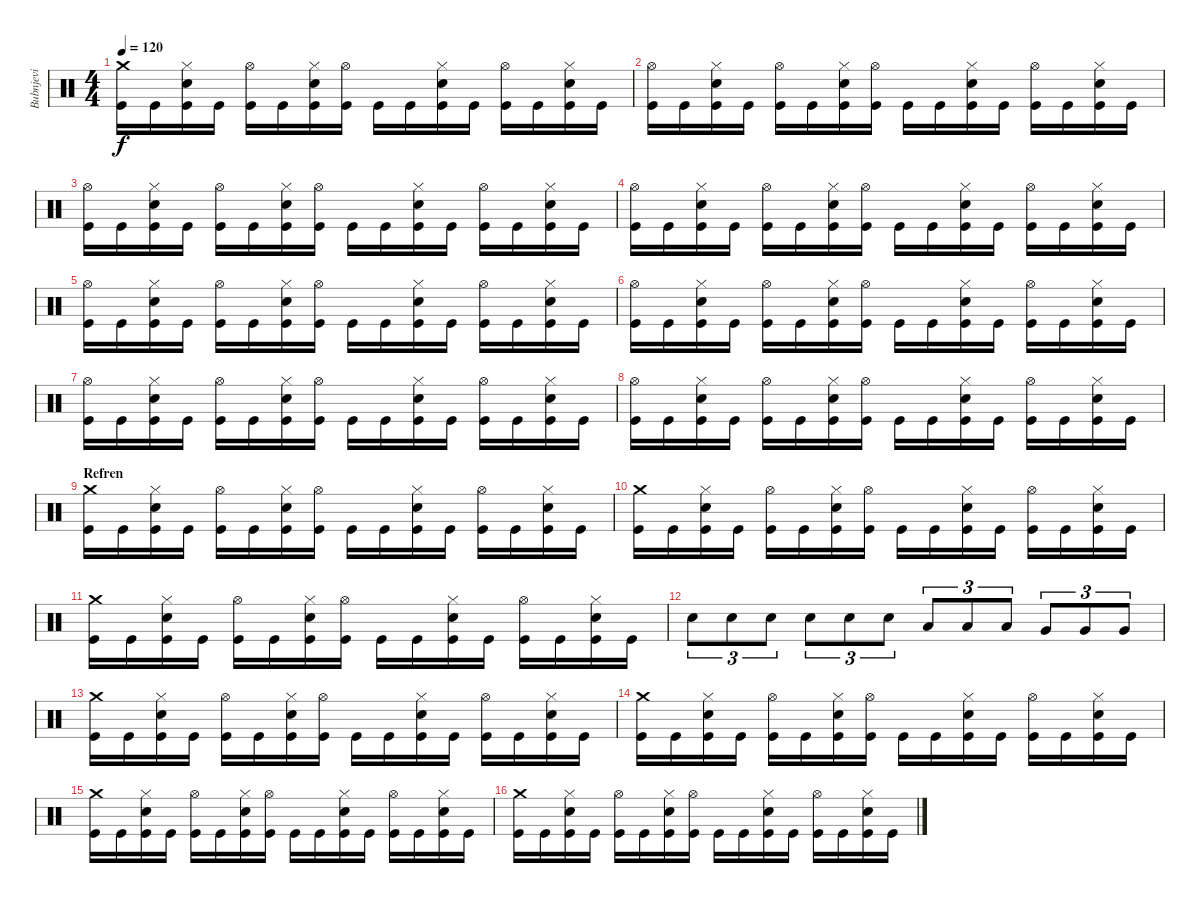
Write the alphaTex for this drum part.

\track ("Bubnjevi" "Bubnjevi") {instrument percussion}
\staff {score}
\articulation defaults
\ts (4 4)
\tempo 120
\clef neutral
\ks c
("Crash medium (hit)" "Kick (hit)").16{dy f} "Kick (hit)".16 ("Electric Snare (hit)" "Hi-Hat (closed)" "Kick (hit)").16 "Kick (hit)".16 ("Hi-Hat (open)" "Kick (hit)").16 "Kick (hit)".16 ("Electric Snare (hit)" "Hi-Hat (closed)" "Kick (hit)").16 ("Hi-Hat (open)" "Kick (hit)").16 "Kick (hit)".16 "Kick (hit)".16 ("Electric Snare (hit)" "Hi-Hat (closed)" "Kick (hit)").16 "Kick (hit)".16 ("Hi-Hat (open)" "Kick (hit)").16 "Kick (hit)".16 ("Electric Snare (hit)" "Hi-Hat (closed)" "Kick (hit)").16 "Kick (hit)".16 |
("Hi-Hat (open)" "Kick (hit)").16 "Kick (hit)".16 ("Electric Snare (hit)" "Hi-Hat (closed)" "Kick (hit)").16 "Kick (hit)".16 ("Hi-Hat (open)" "Kick (hit)").16 "Kick (hit)".16 ("Electric Snare (hit)" "Hi-Hat (closed)" "Kick (hit)").16 ("Hi-Hat (open)" "Kick (hit)").16 "Kick (hit)".16 "Kick (hit)".16 ("Electric Snare (hit)" "Hi-Hat (closed)" "Kick (hit)").16 "Kick (hit)".16 ("Hi-Hat (open)" "Kick (hit)").16 "Kick (hit)".16 ("Electric Snare (hit)" "Hi-Hat (closed)" "Kick (hit)").16 "Kick (hit)".16 |
("Hi-Hat (open)" "Kick (hit)").16 "Kick (hit)".16 ("Electric Snare (hit)" "Hi-Hat (closed)" "Kick (hit)").16 "Kick (hit)".16 ("Hi-Hat (open)" "Kick (hit)").16 "Kick (hit)".16 ("Electric Snare (hit)" "Hi-Hat (closed)" "Kick (hit)").16 ("Hi-Hat (open)" "Kick (hit)").16 "Kick (hit)".16 "Kick (hit)".16 ("Electric Snare (hit)" "Hi-Hat (closed)" "Kick (hit)").16 "Kick (hit)".16 ("Hi-Hat (open)" "Kick (hit)").16 "Kick (hit)".16 ("Electric Snare (hit)" "Hi-Hat (closed)" "Kick (hit)").16 "Kick (hit)".16 |
("Hi-Hat (open)" "Kick (hit)").16 "Kick (hit)".16 ("Electric Snare (hit)" "Hi-Hat (closed)" "Kick (hit)").16 "Kick (hit)".16 ("Hi-Hat (open)" "Kick (hit)").16 "Kick (hit)".16 ("Electric Snare (hit)" "Hi-Hat (closed)" "Kick (hit)").16 ("Hi-Hat (open)" "Kick (hit)").16 "Kick (hit)".16 "Kick (hit)".16 ("Electric Snare (hit)" "Hi-Hat (closed)" "Kick (hit)").16 "Kick (hit)".16 ("Hi-Hat (open)" "Kick (hit)").16 "Kick (hit)".16 ("Electric Snare (hit)" "Hi-Hat (closed)" "Kick (hit)").16 "Kick (hit)".16 |
("Hi-Hat (open)" "Kick (hit)").16 "Kick (hit)".16 ("Electric Snare (hit)" "Hi-Hat (closed)" "Kick (hit)").16 "Kick (hit)".16 ("Hi-Hat (open)" "Kick (hit)").16 "Kick (hit)".16 ("Electric Snare (hit)" "Hi-Hat (closed)" "Kick (hit)").16 ("Hi-Hat (open)" "Kick (hit)").16 "Kick (hit)".16 "Kick (hit)".16 ("Electric Snare (hit)" "Hi-Hat (closed)" "Kick (hit)").16 "Kick (hit)".16 ("Hi-Hat (open)" "Kick (hit)").16 "Kick (hit)".16 ("Electric Snare (hit)" "Hi-Hat (closed)" "Kick (hit)").16 "Kick (hit)".16 |
("Hi-Hat (open)" "Kick (hit)").16 "Kick (hit)".16 ("Electric Snare (hit)" "Hi-Hat (closed)" "Kick (hit)").16 "Kick (hit)".16 ("Hi-Hat (open)" "Kick (hit)").16 "Kick (hit)".16 ("Electric Snare (hit)" "Hi-Hat (closed)" "Kick (hit)").16 ("Hi-Hat (open)" "Kick (hit)").16 "Kick (hit)".16 "Kick (hit)".16 ("Electric Snare (hit)" "Hi-Hat (closed)" "Kick (hit)").16 "Kick (hit)".16 ("Hi-Hat (open)" "Kick (hit)").16 "Kick (hit)".16 ("Electric Snare (hit)" "Hi-Hat (closed)" "Kick (hit)").16 "Kick (hit)".16 |
("Hi-Hat (open)" "Kick (hit)").16 "Kick (hit)".16 ("Electric Snare (hit)" "Hi-Hat (closed)" "Kick (hit)").16 "Kick (hit)".16 ("Hi-Hat (open)" "Kick (hit)").16 "Kick (hit)".16 ("Electric Snare (hit)" "Hi-Hat (closed)" "Kick (hit)").16 ("Hi-Hat (open)" "Kick (hit)").16 "Kick (hit)".16 "Kick (hit)".16 ("Electric Snare (hit)" "Hi-Hat (closed)" "Kick (hit)").16 "Kick (hit)".16 ("Hi-Hat (open)" "Kick (hit)").16 "Kick (hit)".16 ("Electric Snare (hit)" "Hi-Hat (closed)" "Kick (hit)").16 "Kick (hit)".16 |
("Hi-Hat (open)" "Kick (hit)").16 "Kick (hit)".16 ("Electric Snare (hit)" "Hi-Hat (closed)" "Kick (hit)").16 "Kick (hit)".16 ("Hi-Hat (open)" "Kick (hit)").16 "Kick (hit)".16 ("Electric Snare (hit)" "Hi-Hat (closed)" "Kick (hit)").16 ("Hi-Hat (open)" "Kick (hit)").16 "Kick (hit)".16 "Kick (hit)".16 ("Electric Snare (hit)" "Hi-Hat (closed)" "Kick (hit)").16 "Kick (hit)".16 ("Hi-Hat (open)" "Kick (hit)").16 "Kick (hit)".16 ("Electric Snare (hit)" "Hi-Hat (closed)" "Kick (hit)").16 "Kick (hit)".16 |
\section ("" "Refren")
("Crash medium (hit)" "Kick (hit)").16 "Kick (hit)".16 ("Electric Snare (hit)" "Hi-Hat (closed)" "Kick (hit)").16 "Kick (hit)".16 ("Hi-Hat (open)" "Kick (hit)").16 "Kick (hit)".16 ("Electric Snare (hit)" "Hi-Hat (closed)" "Kick (hit)").16 ("Hi-Hat (open)" "Kick (hit)").16 "Kick (hit)".16 "Kick (hit)".16 ("Electric Snare (hit)" "Hi-Hat (closed)" "Kick (hit)").16 "Kick (hit)".16 ("Hi-Hat (open)" "Kick (hit)").16 "Kick (hit)".16 ("Electric Snare (hit)" "Hi-Hat (closed)" "Kick (hit)").16 "Kick (hit)".16 |
("Crash medium (hit)" "Kick (hit)").16 "Kick (hit)".16 ("Electric Snare (hit)" "Hi-Hat (closed)" "Kick (hit)").16 "Kick (hit)".16 ("Hi-Hat (open)" "Kick (hit)").16 "Kick (hit)".16 ("Electric Snare (hit)" "Hi-Hat (closed)" "Kick (hit)").16 ("Hi-Hat (open)" "Kick (hit)").16 "Kick (hit)".16 "Kick (hit)".16 ("Electric Snare (hit)" "Hi-Hat (closed)" "Kick (hit)").16 "Kick (hit)".16 ("Hi-Hat (open)" "Kick (hit)").16 "Kick (hit)".16 ("Electric Snare (hit)" "Hi-Hat (closed)" "Kick (hit)").16 "Kick (hit)".16 |
("Crash medium (hit)" "Kick (hit)").16 "Kick (hit)".16 ("Electric Snare (hit)" "Hi-Hat (closed)" "Kick (hit)").16 "Kick (hit)".16 ("Hi-Hat (open)" "Kick (hit)").16 "Kick (hit)".16 ("Electric Snare (hit)" "Hi-Hat (closed)" "Kick (hit)").16 ("Hi-Hat (open)" "Kick (hit)").16 "Kick (hit)".16 "Kick (hit)".16 ("Electric Snare (hit)" "Hi-Hat (closed)" "Kick (hit)").16 "Kick (hit)".16 ("Hi-Hat (open)" "Kick (hit)").16 "Kick (hit)".16 ("Electric Snare (hit)" "Hi-Hat (closed)" "Kick (hit)").16 "Kick (hit)".16 |
"Electric Snare (hit)".8{tu (3 2)} "Electric Snare (hit)".8{tu (3 2)} "Electric Snare (hit)".8{tu (3 2)} "Electric Snare (hit)".8{tu (3 2)} "Electric Snare (hit)".8{tu (3 2)} "Electric Snare (hit)".8{tu (3 2)} "Low Tom (hit)".8{tu (3 2)} "Low Tom (hit)".8{tu (3 2)} "Low Tom (hit)".8{tu (3 2)} "Very Low Tom (hit)".8{tu (3 2)} "Very Low Tom (hit)".8{tu (3 2)} "Very Low Tom (hit)".8{tu (3 2)} |
("Crash medium (hit)" "Kick (hit)").16 "Kick (hit)".16 ("Electric Snare (hit)" "Hi-Hat (closed)" "Kick (hit)").16 "Kick (hit)".16 ("Hi-Hat (open)" "Kick (hit)").16 "Kick (hit)".16 ("Electric Snare (hit)" "Hi-Hat (closed)" "Kick (hit)").16 ("Hi-Hat (open)" "Kick (hit)").16 "Kick (hit)".16 "Kick (hit)".16 ("Electric Snare (hit)" "Hi-Hat (closed)" "Kick (hit)").16 "Kick (hit)".16 ("Hi-Hat (open)" "Kick (hit)").16 "Kick (hit)".16 ("Electric Snare (hit)" "Hi-Hat (closed)" "Kick (hit)").16 "Kick (hit)".16 |
("Crash medium (hit)" "Kick (hit)").16 "Kick (hit)".16 ("Electric Snare (hit)" "Hi-Hat (closed)" "Kick (hit)").16 "Kick (hit)".16 ("Hi-Hat (open)" "Kick (hit)").16 "Kick (hit)".16 ("Electric Snare (hit)" "Hi-Hat (closed)" "Kick (hit)").16 ("Hi-Hat (open)" "Kick (hit)").16 "Kick (hit)".16 "Kick (hit)".16 ("Electric Snare (hit)" "Hi-Hat (closed)" "Kick (hit)").16 "Kick (hit)".16 ("Hi-Hat (open)" "Kick (hit)").16 "Kick (hit)".16 ("Electric Snare (hit)" "Hi-Hat (closed)" "Kick (hit)").16 "Kick (hit)".16 |
("Crash medium (hit)" "Kick (hit)").16 "Kick (hit)".16 ("Electric Snare (hit)" "Hi-Hat (closed)" "Kick (hit)").16 "Kick (hit)".16 ("Hi-Hat (open)" "Kick (hit)").16 "Kick (hit)".16 ("Electric Snare (hit)" "Hi-Hat (closed)" "Kick (hit)").16 ("Hi-Hat (open)" "Kick (hit)").16 "Kick (hit)".16 "Kick (hit)".16 ("Electric Snare (hit)" "Hi-Hat (closed)" "Kick (hit)").16 "Kick (hit)".16 ("Hi-Hat (open)" "Kick (hit)").16 "Kick (hit)".16 ("Electric Snare (hit)" "Hi-Hat (closed)" "Kick (hit)").16 "Kick (hit)".16 |
("Crash medium (hit)" "Kick (hit)").16 "Kick (hit)".16 ("Electric Snare (hit)" "Hi-Hat (closed)" "Kick (hit)").16 "Kick (hit)".16 ("Hi-Hat (open)" "Kick (hit)").16 "Kick (hit)".16 ("Electric Snare (hit)" "Hi-Hat (closed)" "Kick (hit)").16 ("Hi-Hat (open)" "Kick (hit)").16 "Kick (hit)".16 "Kick (hit)".16 ("Electric Snare (hit)" "Hi-Hat (closed)" "Kick (hit)").16 "Kick (hit)".16 ("Hi-Hat (open)" "Kick (hit)").16 "Kick (hit)".16 ("Electric Snare (hit)" "Hi-Hat (closed)" "Kick (hit)").16 "Kick (hit)".16
